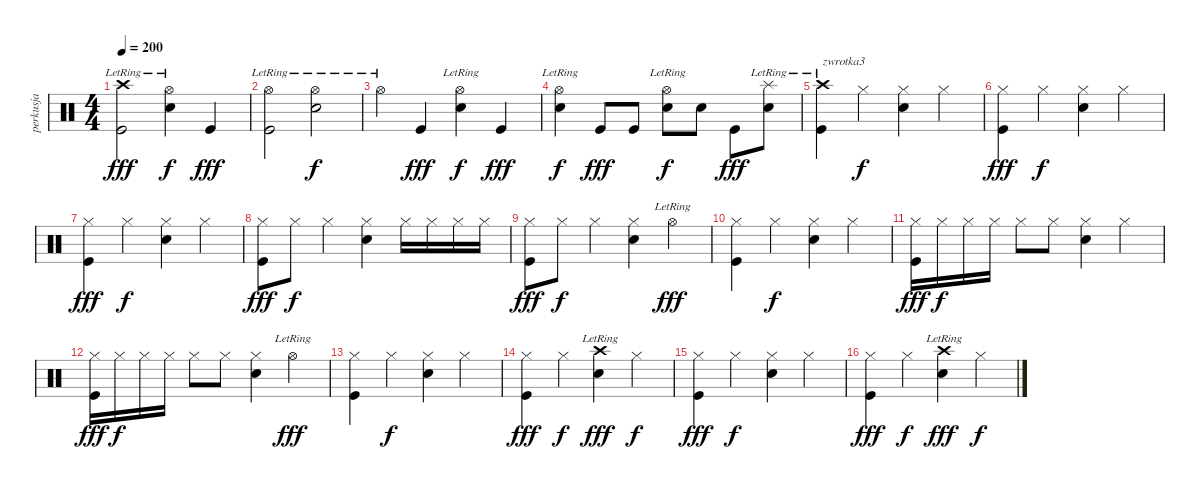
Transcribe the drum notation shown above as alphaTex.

\track ("perkusja" "perkusja") {instrument percussion}
\staff {score}
\articulation defaults
\ts (4 4)
\tempo 200
\clef neutral
\ks c
("Crash high (hit)"{lr} "Kick (hit)").2{dy fff} ("Hi-Hat (open)"{lr} "Electric Snare (hit)").4{dy f} "Kick (hit)".4{dy fff} |
("Hi-Hat (open)"{lr} "Kick (hit)").2 ("Hi-Hat (open)"{lr} "Electric Snare (hit)").2{dy f} |
"Hi-Hat (open)"{lr}.4 "Kick (hit)".4{dy fff} ("Hi-Hat (open)"{lr} "Electric Snare (hit)").4{dy f} "Kick (hit)".4{dy fff} |
("Hi-Hat (open)"{lr} "Electric Snare (hit)").4{dy f} "Kick (hit)".8{dy fff} "Kick (hit)".8 ("Hi-Hat (open)"{lr} "Electric Snare (hit)").8{dy f} "Electric Snare (hit)".8 "Kick (hit)".8{dy fff} ("Splash (hit)"{lr} "Electric Snare (hit)").8 |
("Crash high (hit)"{lr} "Kick (hit)").4{txt "zwrotka3"} "Hi-Hat (closed)".4{dy f} ("Hi-Hat (closed)" "Electric Snare (hit)").4 "Hi-Hat (closed)".4 |
("Hi-Hat (closed)" "Kick (hit)").4{dy fff} "Hi-Hat (closed)".4{dy f} ("Hi-Hat (closed)" "Electric Snare (hit)").4 "Hi-Hat (closed)".4 |
("Hi-Hat (closed)" "Kick (hit)").4{dy fff} "Hi-Hat (closed)".4{dy f} ("Hi-Hat (closed)" "Electric Snare (hit)").4 "Hi-Hat (closed)".4 |
("Hi-Hat (closed)" "Kick (hit)").8{dy fff} "Hi-Hat (closed)".8{dy f} "Hi-Hat (closed)".4 ("Hi-Hat (closed)" "Electric Snare (hit)").4 "Hi-Hat (closed)".16 "Hi-Hat (closed)".16 "Hi-Hat (closed)".16 "Hi-Hat (closed)".16 |
("Hi-Hat (closed)" "Kick (hit)").8{dy fff} "Hi-Hat (closed)".8{dy f} "Hi-Hat (closed)".4 ("Hi-Hat (closed)" "Electric Snare (hit)").4 "Hi-Hat (open)"{lr}.4{dy fff} |
("Hi-Hat (closed)" "Kick (hit)").4 "Hi-Hat (closed)".4{dy f} ("Hi-Hat (closed)" "Electric Snare (hit)").4 "Hi-Hat (closed)".4 |
("Hi-Hat (closed)" "Kick (hit)").16{dy fff} "Hi-Hat (closed)".16{dy f} "Hi-Hat (closed)".16 "Hi-Hat (closed)".16 "Hi-Hat (closed)".8 "Hi-Hat (closed)".8 ("Hi-Hat (closed)" "Electric Snare (hit)").4 "Hi-Hat (closed)".4 |
("Hi-Hat (closed)" "Kick (hit)").16{dy fff} "Hi-Hat (closed)".16{dy f} "Hi-Hat (closed)".16 "Hi-Hat (closed)".16 "Hi-Hat (closed)".8 "Hi-Hat (closed)".8 ("Hi-Hat (closed)" "Electric Snare (hit)").4 "Hi-Hat (open)"{lr}.4{dy fff} |
("Hi-Hat (closed)" "Kick (hit)").4 "Hi-Hat (closed)".4{dy f} ("Hi-Hat (closed)" "Electric Snare (hit)").4 "Hi-Hat (closed)".4 |
("Hi-Hat (closed)" "Kick (hit)").4{dy fff} "Hi-Hat (closed)".4{dy f} ("Crash high (hit)"{lr} "Electric Snare (hit)").4{dy fff} "Hi-Hat (closed)".4{dy f} |
("Hi-Hat (closed)" "Kick (hit)").4{dy fff} "Hi-Hat (closed)".4{dy f} ("Hi-Hat (closed)" "Electric Snare (hit)").4 "Hi-Hat (closed)".4 |
("Hi-Hat (closed)" "Kick (hit)").4{dy fff} "Hi-Hat (closed)".4{dy f} ("Crash high (hit)"{lr} "Electric Snare (hit)").4{dy fff} "Hi-Hat (closed)".4{dy f}
